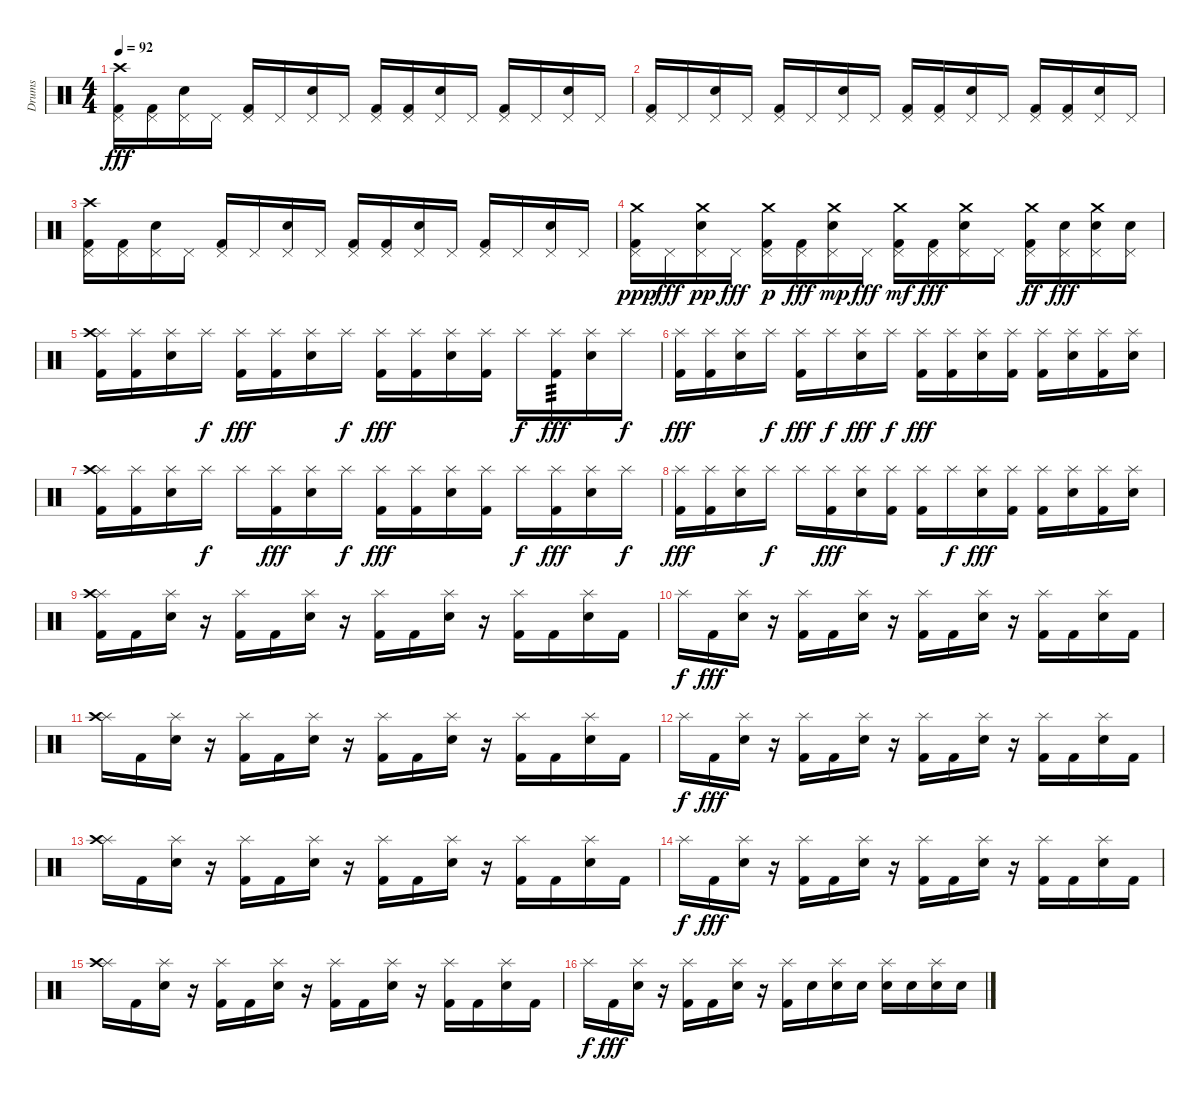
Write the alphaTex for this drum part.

\track ("Drums" "Drums") {instrument percussion}
\staff {score}
\articulation defaults
\ts (4 4)
\tempo 92
\clef neutral
\ks c
("Kick (hit) 2" "Pedal Hi-Hat (hit)" "Crash high (hit)").16{dy fff} ("Kick (hit) 2" "Pedal Hi-Hat (hit)").16 ("Electric Snare (hit)" "Pedal Hi-Hat (hit)").16 "Pedal Hi-Hat (hit)".16 ("Kick (hit) 2" "Pedal Hi-Hat (hit)").16 "Pedal Hi-Hat (hit)".16 ("Electric Snare (hit)" "Pedal Hi-Hat (hit)").16 "Pedal Hi-Hat (hit)".16 ("Kick (hit) 2" "Pedal Hi-Hat (hit)").16 ("Kick (hit) 2" "Pedal Hi-Hat (hit)").16 ("Electric Snare (hit)" "Pedal Hi-Hat (hit)").16 "Pedal Hi-Hat (hit)".16 ("Kick (hit) 2" "Pedal Hi-Hat (hit)").16 "Pedal Hi-Hat (hit)".16 ("Electric Snare (hit)" "Pedal Hi-Hat (hit)").16 "Pedal Hi-Hat (hit)".16 |
("Kick (hit) 2" "Pedal Hi-Hat (hit)").16 "Pedal Hi-Hat (hit)".16 ("Electric Snare (hit)" "Pedal Hi-Hat (hit)").16 "Pedal Hi-Hat (hit)".16 ("Kick (hit) 2" "Pedal Hi-Hat (hit)").16 "Pedal Hi-Hat (hit)".16 ("Electric Snare (hit)" "Pedal Hi-Hat (hit)").16 "Pedal Hi-Hat (hit)".16 ("Kick (hit) 2" "Pedal Hi-Hat (hit)").16 ("Kick (hit) 2" "Pedal Hi-Hat (hit)").16 ("Electric Snare (hit)" "Pedal Hi-Hat (hit)").16 "Pedal Hi-Hat (hit)".16 ("Kick (hit) 2" "Pedal Hi-Hat (hit)").16 ("Kick (hit) 2" "Pedal Hi-Hat (hit)").16 ("Electric Snare (hit)" "Pedal Hi-Hat (hit)").16 "Pedal Hi-Hat (hit)".16 |
("Kick (hit) 2" "Pedal Hi-Hat (hit)" "Crash high (hit)").16 ("Kick (hit) 2" "Pedal Hi-Hat (hit)").16 ("Electric Snare (hit)" "Pedal Hi-Hat (hit)").16 "Pedal Hi-Hat (hit)".16 ("Kick (hit) 2" "Pedal Hi-Hat (hit)").16 "Pedal Hi-Hat (hit)".16 ("Electric Snare (hit)" "Pedal Hi-Hat (hit)").16 "Pedal Hi-Hat (hit)".16 ("Kick (hit) 2" "Pedal Hi-Hat (hit)").16 ("Kick (hit) 2" "Pedal Hi-Hat (hit)").16 ("Electric Snare (hit)" "Pedal Hi-Hat (hit)").16 "Pedal Hi-Hat (hit)".16 ("Kick (hit) 2" "Pedal Hi-Hat (hit)").16 "Pedal Hi-Hat (hit)".16 ("Electric Snare (hit)" "Pedal Hi-Hat (hit)").16 "Pedal Hi-Hat (hit)".16 |
("Kick (hit) 2" "Pedal Hi-Hat (hit)" "Crash medium (hit)").16{dy ppp} "Pedal Hi-Hat (hit)".16{dy fff} ("Electric Snare (hit)" "Pedal Hi-Hat (hit)" "Crash medium (hit)").16{dy pp} "Pedal Hi-Hat (hit)".16{dy fff} ("Kick (hit) 2" "Pedal Hi-Hat (hit)" "Crash medium (hit)").16{dy p} ("Kick (hit) 2" "Pedal Hi-Hat (hit)").16{dy fff} ("Electric Snare (hit)" "Pedal Hi-Hat (hit)" "Crash medium (hit)").16{dy mp} "Pedal Hi-Hat (hit)".16{dy fff} ("Kick (hit) 2" "Pedal Hi-Hat (hit)" "Crash medium (hit)").16{dy mf} ("Kick (hit) 2" "Pedal Hi-Hat (hit)").16{dy fff} ("Electric Snare (hit)" "Pedal Hi-Hat (hit)" "Crash medium (hit)").16 "Pedal Hi-Hat (hit)".16 ("Kick (hit) 2" "Pedal Hi-Hat (hit)" "Crash medium (hit)").16{dy ff} ("Electric Snare (hit)" "Pedal Hi-Hat (hit)").16{dy fff} ("Electric Snare (hit)" "Pedal Hi-Hat (hit)" "Crash medium (hit)").16 ("Electric Snare (hit)" "Pedal Hi-Hat (hit)").16 |
("Kick (hit) 2" "Splash (hit)" "Crash high (hit)").16 ("Kick (hit) 2" "Splash (hit)").16 ("Electric Snare (hit)" "Splash (hit)").16 "Splash (hit)".16{dy f} ("Kick (hit) 2" "Splash (hit)").16{dy fff} ("Kick (hit) 2" "Splash (hit)").16 ("Electric Snare (hit)" "Splash (hit)").16 "Splash (hit)".16{dy f} ("Kick (hit) 2" "Splash (hit)").16{dy fff} ("Kick (hit) 2" "Splash (hit)").16 ("Electric Snare (hit)" "Splash (hit)").16 ("Kick (hit) 2" "Splash (hit)").16 "Splash (hit)".16{dy f} ("Kick (hit) 2" "Splash (hit)").16{tp 3 dy fff} ("Electric Snare (hit)" "Splash (hit)").16 "Splash (hit)".16{dy f} |
("Kick (hit) 2" "Splash (hit)").16{dy fff} ("Kick (hit) 2" "Splash (hit)").16 ("Electric Snare (hit)" "Splash (hit)").16 "Splash (hit)".16{dy f} ("Kick (hit) 2" "Splash (hit)").16{dy fff} "Splash (hit)".16{dy f} ("Electric Snare (hit)" "Splash (hit)").16{dy fff} "Splash (hit)".16{dy f} ("Kick (hit) 2" "Splash (hit)").16{dy fff} ("Kick (hit) 2" "Splash (hit)").16 ("Electric Snare (hit)" "Splash (hit)").16 ("Kick (hit) 2" "Splash (hit)").16 ("Kick (hit) 2" "Splash (hit)").16 ("Electric Snare (hit)" "Splash (hit)").16 ("Kick (hit) 2" "Splash (hit)").16 ("Electric Snare (hit)" "Splash (hit)").16 |
("Kick (hit) 2" "Splash (hit)" "Crash high (hit)").16 ("Kick (hit) 2" "Splash (hit)").16 ("Electric Snare (hit)" "Splash (hit)").16 "Splash (hit)".16{dy f} "Splash (hit)".16 ("Kick (hit) 2" "Splash (hit)").16{dy fff} ("Electric Snare (hit)" "Splash (hit)").16 "Splash (hit)".16{dy f} ("Kick (hit) 2" "Splash (hit)").16{dy fff} ("Kick (hit) 2" "Splash (hit)").16 ("Electric Snare (hit)" "Splash (hit)").16 ("Kick (hit) 2" "Splash (hit)").16 "Splash (hit)".16{dy f} ("Kick (hit) 2" "Splash (hit)").16{dy fff} ("Electric Snare (hit)" "Splash (hit)").16 "Splash (hit)".16{dy f} |
("Kick (hit) 2" "Splash (hit)").16{dy fff} ("Kick (hit) 2" "Splash (hit)").16 ("Electric Snare (hit)" "Splash (hit)").16 "Splash (hit)".16{dy f} "Splash (hit)".16 ("Kick (hit) 2" "Splash (hit)").16{dy fff} ("Electric Snare (hit)" "Splash (hit)").16 ("Kick (hit) 2" "Splash (hit)").16 ("Kick (hit) 2" "Splash (hit)").16 "Splash (hit)".16{dy f} ("Electric Snare (hit)" "Splash (hit)").16{dy fff} ("Kick (hit) 2" "Splash (hit)").16 ("Kick (hit) 2" "Splash (hit)").16 ("Electric Snare (hit)" "Splash (hit)").16 ("Kick (hit) 2" "Splash (hit)").16 ("Electric Snare (hit)" "Splash (hit)").16 |
("Kick (hit) 2" "Splash (hit)" "Crash high (hit)").16 "Kick (hit) 2".16 ("Electric Snare (hit)" "Splash (hit)").16 r.16 ("Kick (hit) 2" "Splash (hit)").16 "Kick (hit) 2".16 ("Electric Snare (hit)" "Splash (hit)").16 r.16 ("Kick (hit) 2" "Splash (hit)").16 "Kick (hit) 2".16 ("Electric Snare (hit)" "Splash (hit)").16 r.16 ("Kick (hit) 2" "Splash (hit)").16 "Kick (hit) 2".16 ("Electric Snare (hit)" "Splash (hit)").16 "Kick (hit) 2".16 |
"Splash (hit)".16{dy f} "Kick (hit) 2".16{dy fff} ("Electric Snare (hit)" "Splash (hit)").16 r.16 ("Kick (hit) 2" "Splash (hit)").16 "Kick (hit) 2".16 ("Electric Snare (hit)" "Splash (hit)").16 r.16 ("Kick (hit) 2" "Splash (hit)").16 "Kick (hit) 2".16 ("Electric Snare (hit)" "Splash (hit)").16 r.16 ("Kick (hit) 2" "Splash (hit)").16 "Kick (hit) 2".16 ("Electric Snare (hit)" "Splash (hit)").16 "Kick (hit) 2".16 |
("Splash (hit)" "Crash high (hit)").16 "Kick (hit) 2".16 ("Electric Snare (hit)" "Splash (hit)").16 r.16 ("Kick (hit) 2" "Splash (hit)").16 "Kick (hit) 2".16 ("Electric Snare (hit)" "Splash (hit)").16 r.16 ("Kick (hit) 2" "Splash (hit)").16 "Kick (hit) 2".16 ("Electric Snare (hit)" "Splash (hit)").16 r.16 ("Kick (hit) 2" "Splash (hit)").16 "Kick (hit) 2".16 ("Electric Snare (hit)" "Splash (hit)").16 "Kick (hit) 2".16 |
"Splash (hit)".16{dy f} "Kick (hit) 2".16{dy fff} ("Electric Snare (hit)" "Splash (hit)").16 r.16 ("Kick (hit) 2" "Splash (hit)").16 "Kick (hit) 2".16 ("Electric Snare (hit)" "Splash (hit)").16 r.16 ("Kick (hit) 2" "Splash (hit)").16 "Kick (hit) 2".16 ("Electric Snare (hit)" "Splash (hit)").16 r.16 ("Kick (hit) 2" "Splash (hit)").16 "Kick (hit) 2".16 ("Electric Snare (hit)" "Splash (hit)").16 "Kick (hit) 2".16 |
("Splash (hit)" "Crash high (hit)").16 "Kick (hit) 2".16 ("Electric Snare (hit)" "Splash (hit)").16 r.16 ("Kick (hit) 2" "Splash (hit)").16 "Kick (hit) 2".16 ("Electric Snare (hit)" "Splash (hit)").16 r.16 ("Kick (hit) 2" "Splash (hit)").16 "Kick (hit) 2".16 ("Electric Snare (hit)" "Splash (hit)").16 r.16 ("Kick (hit) 2" "Splash (hit)").16 "Kick (hit) 2".16 ("Electric Snare (hit)" "Splash (hit)").16 "Kick (hit) 2".16 |
"Splash (hit)".16{dy f} "Kick (hit) 2".16{dy fff} ("Electric Snare (hit)" "Splash (hit)").16 r.16 ("Kick (hit) 2" "Splash (hit)").16 "Kick (hit) 2".16 ("Electric Snare (hit)" "Splash (hit)").16 r.16 ("Kick (hit) 2" "Splash (hit)").16 "Kick (hit) 2".16 ("Electric Snare (hit)" "Splash (hit)").16 r.16 ("Kick (hit) 2" "Splash (hit)").16 "Kick (hit) 2".16 ("Electric Snare (hit)" "Splash (hit)").16 "Kick (hit) 2".16 |
("Splash (hit)" "Crash high (hit)").16 "Kick (hit) 2".16 ("Electric Snare (hit)" "Splash (hit)").16 r.16 ("Kick (hit) 2" "Splash (hit)").16 "Kick (hit) 2".16 ("Electric Snare (hit)" "Splash (hit)").16 r.16 ("Kick (hit) 2" "Splash (hit)").16 "Kick (hit) 2".16 ("Electric Snare (hit)" "Splash (hit)").16 r.16 ("Kick (hit) 2" "Splash (hit)").16 "Kick (hit) 2".16 ("Electric Snare (hit)" "Splash (hit)").16 "Kick (hit) 2".16 |
"Splash (hit)".16{dy f} "Kick (hit) 2".16{dy fff} ("Electric Snare (hit)" "Splash (hit)").16 r.16 ("Kick (hit) 2" "Splash (hit)").16 "Kick (hit) 2".16 ("Electric Snare (hit)" "Splash (hit)").16 r.16 ("Kick (hit) 2" "Splash (hit)").16 "Electric Snare (hit)".16 ("Electric Snare (hit)" "Splash (hit)").16 "Electric Snare (hit)".16 ("Electric Snare (hit)" "Splash (hit)").16 "Electric Snare (hit)".16 ("Electric Snare (hit)" "Splash (hit)").16 "Electric Snare (hit)".16
